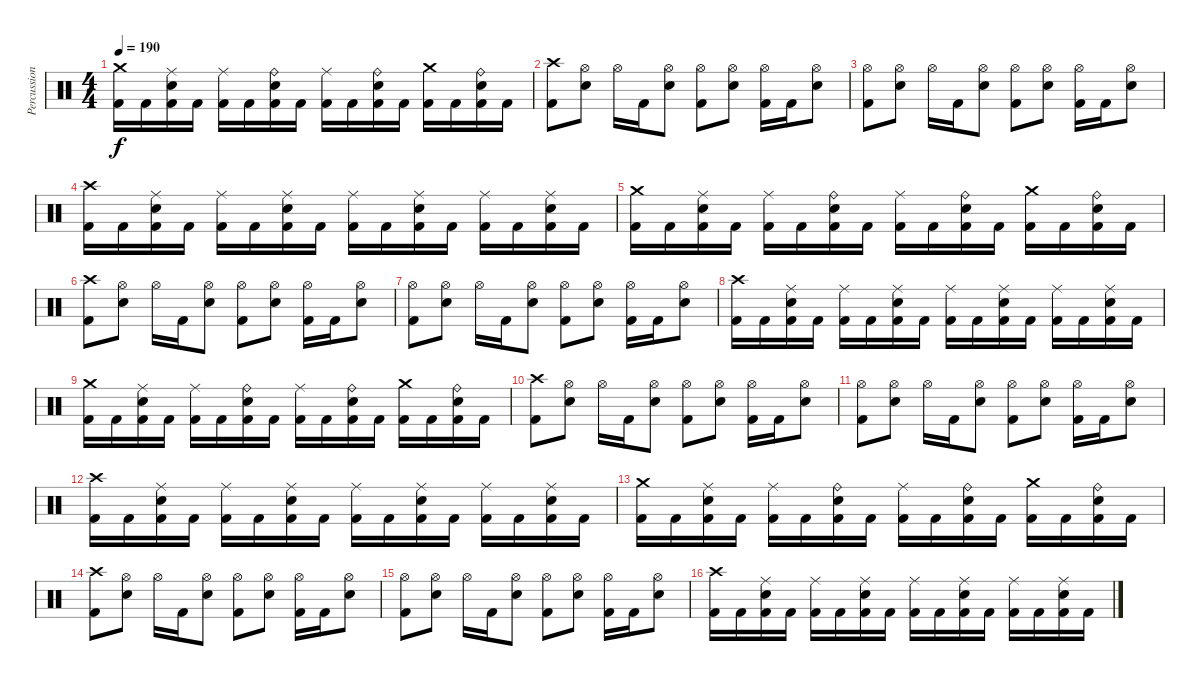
\track ("Percussion" "Percussion") {instrument percussion}
\staff {score}
\articulation defaults
\ts (4 4)
\tempo 190
\clef neutral
\ks c
("Crash medium (hit)" "Kick (hit) 2").16{dy f} "Kick (hit) 2".16 ("Ride (middle)" "Snare (hit) 2" "Kick (hit) 2").16 "Kick (hit) 2".16 ("Ride (middle)" "Kick (hit) 2").16 "Kick (hit) 2".16 ("Ride (bell)" "Snare (hit) 2" "Kick (hit) 2").16 "Kick (hit) 2".16 ("Ride (middle)" "Kick (hit) 2").16 "Kick (hit) 2".16 ("Ride (bell)" "Snare (hit) 2" "Kick (hit) 2").16 "Kick (hit) 2".16 ("Crash medium (hit)" "Kick (hit) 2").16 "Kick (hit) 2".16 ("Ride (bell)" "Snare (hit) 2" "Kick (hit) 2").16 "Kick (hit) 2".16 |
("Crash high (hit)" "Kick (hit) 2").8 ("Hi-Hat (open)" "Snare (hit) 2").8 "Hi-Hat (open)".16 "Kick (hit) 2".16 ("Hi-Hat (open)" "Snare (hit) 2").8 ("Hi-Hat (open)" "Kick (hit) 2").8 ("Hi-Hat (open)" "Snare (hit) 2").8 ("Hi-Hat (open)" "Kick (hit) 2").16 "Kick (hit) 2".16 ("Hi-Hat (open)" "Snare (hit) 2").8 |
("Hi-Hat (open)" "Kick (hit) 2").8 ("Hi-Hat (open)" "Snare (hit) 2").8 "Hi-Hat (open)".16 "Kick (hit) 2".16 ("Hi-Hat (open)" "Snare (hit) 2").8 ("Hi-Hat (open)" "Kick (hit) 2").8 ("Hi-Hat (open)" "Snare (hit) 2").8 ("Hi-Hat (open)" "Kick (hit) 2").16 "Kick (hit) 2".16 ("Hi-Hat (open)" "Snare (hit) 2").8 |
("Crash high (hit)" "Kick (hit) 2").16 "Kick (hit) 2".16 ("Ride (middle)" "Snare (hit) 2" "Kick (hit) 2").16 "Kick (hit) 2".16 ("Ride (middle)" "Kick (hit) 2").16 "Kick (hit) 2".16 ("Ride (middle)" "Snare (hit) 2" "Kick (hit) 2").16 "Kick (hit) 2".16 ("Ride (middle)" "Kick (hit) 2").16 "Kick (hit) 2".16 ("Ride (middle)" "Snare (hit) 2" "Kick (hit) 2").16 "Kick (hit) 2".16 ("Ride (middle)" "Kick (hit) 2").16 "Kick (hit) 2".16 ("Ride (middle)" "Snare (hit) 2" "Kick (hit) 2").16 "Kick (hit) 2".16 |
("Crash medium (hit)" "Kick (hit) 2").16 "Kick (hit) 2".16 ("Ride (middle)" "Snare (hit) 2" "Kick (hit) 2").16 "Kick (hit) 2".16 ("Ride (middle)" "Kick (hit) 2").16 "Kick (hit) 2".16 ("Ride (bell)" "Snare (hit) 2" "Kick (hit) 2").16 "Kick (hit) 2".16 ("Ride (middle)" "Kick (hit) 2").16 "Kick (hit) 2".16 ("Ride (bell)" "Snare (hit) 2" "Kick (hit) 2").16 "Kick (hit) 2".16 ("Crash medium (hit)" "Kick (hit) 2").16 "Kick (hit) 2".16 ("Ride (bell)" "Snare (hit) 2" "Kick (hit) 2").16 "Kick (hit) 2".16 |
("Crash high (hit)" "Kick (hit) 2").8 ("Hi-Hat (open)" "Snare (hit) 2").8 "Hi-Hat (open)".16 "Kick (hit) 2".16 ("Hi-Hat (open)" "Snare (hit) 2").8 ("Hi-Hat (open)" "Kick (hit) 2").8 ("Hi-Hat (open)" "Snare (hit) 2").8 ("Hi-Hat (open)" "Kick (hit) 2").16 "Kick (hit) 2".16 ("Hi-Hat (open)" "Snare (hit) 2").8 |
("Hi-Hat (open)" "Kick (hit) 2").8 ("Hi-Hat (open)" "Snare (hit) 2").8 "Hi-Hat (open)".16 "Kick (hit) 2".16 ("Hi-Hat (open)" "Snare (hit) 2").8 ("Hi-Hat (open)" "Kick (hit) 2").8 ("Hi-Hat (open)" "Snare (hit) 2").8 ("Hi-Hat (open)" "Kick (hit) 2").16 "Kick (hit) 2".16 ("Hi-Hat (open)" "Snare (hit) 2").8 |
("Crash high (hit)" "Kick (hit) 2").16 "Kick (hit) 2".16 ("Ride (middle)" "Snare (hit) 2" "Kick (hit) 2").16 "Kick (hit) 2".16 ("Ride (middle)" "Kick (hit) 2").16 "Kick (hit) 2".16 ("Ride (middle)" "Snare (hit) 2" "Kick (hit) 2").16 "Kick (hit) 2".16 ("Ride (middle)" "Kick (hit) 2").16 "Kick (hit) 2".16 ("Ride (middle)" "Snare (hit) 2" "Kick (hit) 2").16 "Kick (hit) 2".16 ("Ride (middle)" "Kick (hit) 2").16 "Kick (hit) 2".16 ("Ride (middle)" "Snare (hit) 2" "Kick (hit) 2").16 "Kick (hit) 2".16 |
("Crash medium (hit)" "Kick (hit) 2").16 "Kick (hit) 2".16 ("Ride (middle)" "Snare (hit) 2" "Kick (hit) 2").16 "Kick (hit) 2".16 ("Ride (middle)" "Kick (hit) 2").16 "Kick (hit) 2".16 ("Ride (bell)" "Snare (hit) 2" "Kick (hit) 2").16 "Kick (hit) 2".16 ("Ride (middle)" "Kick (hit) 2").16 "Kick (hit) 2".16 ("Ride (bell)" "Snare (hit) 2" "Kick (hit) 2").16 "Kick (hit) 2".16 ("Crash medium (hit)" "Kick (hit) 2").16 "Kick (hit) 2".16 ("Ride (bell)" "Snare (hit) 2" "Kick (hit) 2").16 "Kick (hit) 2".16 |
("Crash high (hit)" "Kick (hit) 2").8 ("Hi-Hat (open)" "Snare (hit) 2").8 "Hi-Hat (open)".16 "Kick (hit) 2".16 ("Hi-Hat (open)" "Snare (hit) 2").8 ("Hi-Hat (open)" "Kick (hit) 2").8 ("Hi-Hat (open)" "Snare (hit) 2").8 ("Hi-Hat (open)" "Kick (hit) 2").16 "Kick (hit) 2".16 ("Hi-Hat (open)" "Snare (hit) 2").8 |
("Hi-Hat (open)" "Kick (hit) 2").8 ("Hi-Hat (open)" "Snare (hit) 2").8 "Hi-Hat (open)".16 "Kick (hit) 2".16 ("Hi-Hat (open)" "Snare (hit) 2").8 ("Hi-Hat (open)" "Kick (hit) 2").8 ("Hi-Hat (open)" "Snare (hit) 2").8 ("Hi-Hat (open)" "Kick (hit) 2").16 "Kick (hit) 2".16 ("Hi-Hat (open)" "Snare (hit) 2").8 |
("Crash high (hit)" "Kick (hit) 2").16 "Kick (hit) 2".16 ("Ride (middle)" "Snare (hit) 2" "Kick (hit) 2").16 "Kick (hit) 2".16 ("Ride (middle)" "Kick (hit) 2").16 "Kick (hit) 2".16 ("Ride (middle)" "Snare (hit) 2" "Kick (hit) 2").16 "Kick (hit) 2".16 ("Ride (middle)" "Kick (hit) 2").16 "Kick (hit) 2".16 ("Ride (middle)" "Snare (hit) 2" "Kick (hit) 2").16 "Kick (hit) 2".16 ("Ride (middle)" "Kick (hit) 2").16 "Kick (hit) 2".16 ("Ride (middle)" "Snare (hit) 2" "Kick (hit) 2").16 "Kick (hit) 2".16 |
("Crash medium (hit)" "Kick (hit) 2").16 "Kick (hit) 2".16 ("Ride (middle)" "Snare (hit) 2" "Kick (hit) 2").16 "Kick (hit) 2".16 ("Ride (middle)" "Kick (hit) 2").16 "Kick (hit) 2".16 ("Ride (bell)" "Snare (hit) 2" "Kick (hit) 2").16 "Kick (hit) 2".16 ("Ride (middle)" "Kick (hit) 2").16 "Kick (hit) 2".16 ("Ride (bell)" "Snare (hit) 2" "Kick (hit) 2").16 "Kick (hit) 2".16 ("Crash medium (hit)" "Kick (hit) 2").16 "Kick (hit) 2".16 ("Ride (bell)" "Snare (hit) 2" "Kick (hit) 2").16 "Kick (hit) 2".16 |
("Crash high (hit)" "Kick (hit) 2").8 ("Hi-Hat (open)" "Snare (hit) 2").8 "Hi-Hat (open)".16 "Kick (hit) 2".16 ("Hi-Hat (open)" "Snare (hit) 2").8 ("Hi-Hat (open)" "Kick (hit) 2").8 ("Hi-Hat (open)" "Snare (hit) 2").8 ("Hi-Hat (open)" "Kick (hit) 2").16 "Kick (hit) 2".16 ("Hi-Hat (open)" "Snare (hit) 2").8 |
("Hi-Hat (open)" "Kick (hit) 2").8 ("Hi-Hat (open)" "Snare (hit) 2").8 "Hi-Hat (open)".16 "Kick (hit) 2".16 ("Hi-Hat (open)" "Snare (hit) 2").8 ("Hi-Hat (open)" "Kick (hit) 2").8 ("Hi-Hat (open)" "Snare (hit) 2").8 ("Hi-Hat (open)" "Kick (hit) 2").16 "Kick (hit) 2".16 ("Hi-Hat (open)" "Snare (hit) 2").8 |
("Crash high (hit)" "Kick (hit) 2").16 "Kick (hit) 2".16 ("Ride (middle)" "Snare (hit) 2" "Kick (hit) 2").16 "Kick (hit) 2".16 ("Ride (middle)" "Kick (hit) 2").16 "Kick (hit) 2".16 ("Ride (middle)" "Snare (hit) 2" "Kick (hit) 2").16 "Kick (hit) 2".16 ("Ride (middle)" "Kick (hit) 2").16 "Kick (hit) 2".16 ("Ride (middle)" "Snare (hit) 2" "Kick (hit) 2").16 "Kick (hit) 2".16 ("Ride (middle)" "Kick (hit) 2").16 "Kick (hit) 2".16 ("Ride (middle)" "Snare (hit) 2" "Kick (hit) 2").16 "Kick (hit) 2".16
